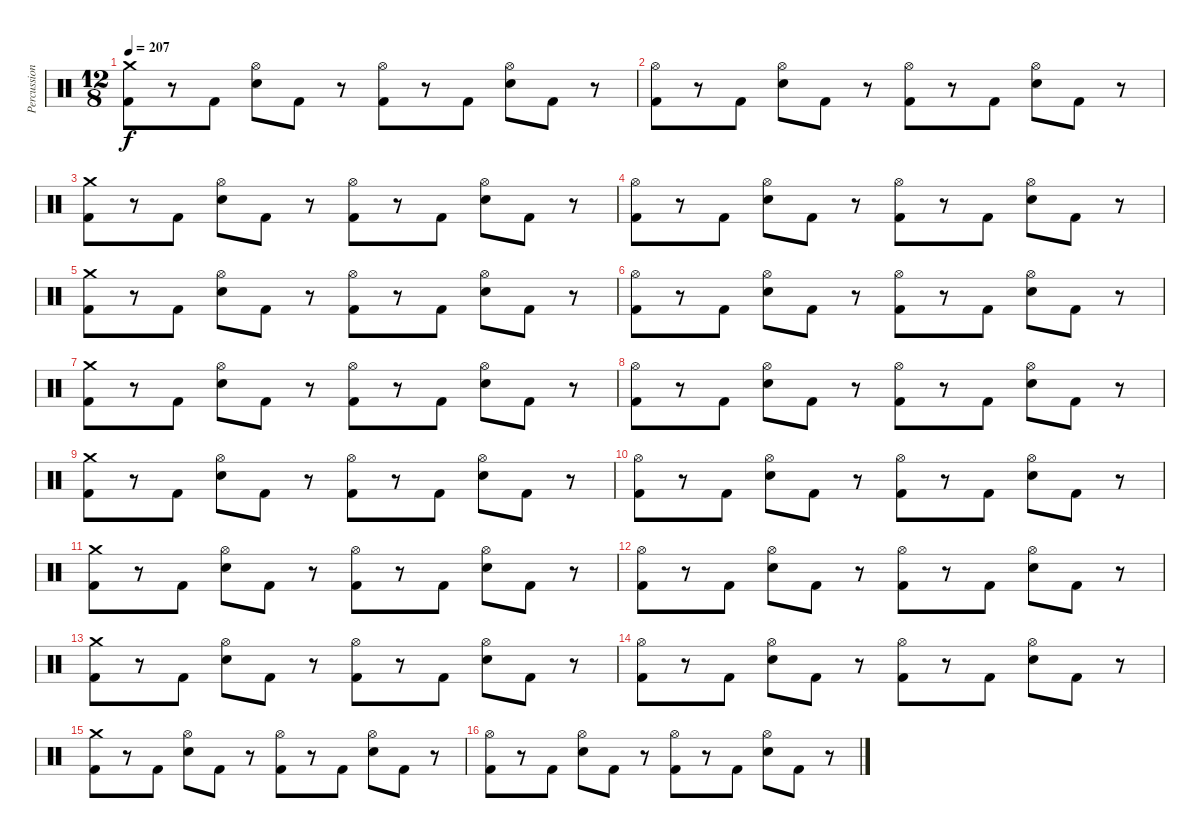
\track ("Percussion" "Percussion") {instrument percussion}
\staff {score}
\articulation defaults
\ts (12 8)
\tempo 207
\clef neutral
\ks c
("Crash medium (hit)" "Kick (hit) 2").8{dy f} r.8 "Kick (hit) 2".8 ("Hi-Hat (open)" "Electric Snare (hit)").8 "Kick (hit) 2".8 r.8 ("Hi-Hat (open)" "Kick (hit) 2").8 r.8 "Kick (hit) 2".8 ("Hi-Hat (open)" "Electric Snare (hit)").8 "Kick (hit) 2".8 r.8 |
("Hi-Hat (open)" "Kick (hit) 2").8 r.8 "Kick (hit) 2".8 ("Hi-Hat (open)" "Electric Snare (hit)").8 "Kick (hit) 2".8 r.8 ("Hi-Hat (open)" "Kick (hit) 2").8 r.8 "Kick (hit) 2".8 ("Hi-Hat (open)" "Electric Snare (hit)").8 "Kick (hit) 2".8 r.8 |
("Crash medium (hit)" "Kick (hit) 2").8 r.8 "Kick (hit) 2".8 ("Hi-Hat (open)" "Electric Snare (hit)").8 "Kick (hit) 2".8 r.8 ("Hi-Hat (open)" "Kick (hit) 2").8 r.8 "Kick (hit) 2".8 ("Hi-Hat (open)" "Electric Snare (hit)").8 "Kick (hit) 2".8 r.8 |
("Hi-Hat (open)" "Kick (hit) 2").8 r.8 "Kick (hit) 2".8 ("Hi-Hat (open)" "Electric Snare (hit)").8 "Kick (hit) 2".8 r.8 ("Hi-Hat (open)" "Kick (hit) 2").8 r.8 "Kick (hit) 2".8 ("Hi-Hat (open)" "Electric Snare (hit)").8 "Kick (hit) 2".8 r.8 |
("Crash medium (hit)" "Kick (hit) 2").8 r.8 "Kick (hit) 2".8 ("Hi-Hat (open)" "Electric Snare (hit)").8 "Kick (hit) 2".8 r.8 ("Hi-Hat (open)" "Kick (hit) 2").8 r.8 "Kick (hit) 2".8 ("Hi-Hat (open)" "Electric Snare (hit)").8 "Kick (hit) 2".8 r.8 |
("Hi-Hat (open)" "Kick (hit) 2").8 r.8 "Kick (hit) 2".8 ("Hi-Hat (open)" "Electric Snare (hit)").8 "Kick (hit) 2".8 r.8 ("Hi-Hat (open)" "Kick (hit) 2").8 r.8 "Kick (hit) 2".8 ("Hi-Hat (open)" "Electric Snare (hit)").8 "Kick (hit) 2".8 r.8 |
("Crash medium (hit)" "Kick (hit) 2").8 r.8 "Kick (hit) 2".8 ("Hi-Hat (open)" "Electric Snare (hit)").8 "Kick (hit) 2".8 r.8 ("Hi-Hat (open)" "Kick (hit) 2").8 r.8 "Kick (hit) 2".8 ("Hi-Hat (open)" "Electric Snare (hit)").8 "Kick (hit) 2".8 r.8 |
("Hi-Hat (open)" "Kick (hit) 2").8 r.8 "Kick (hit) 2".8 ("Hi-Hat (open)" "Electric Snare (hit)").8 "Kick (hit) 2".8 r.8 ("Hi-Hat (open)" "Kick (hit) 2").8 r.8 "Kick (hit) 2".8 ("Hi-Hat (open)" "Electric Snare (hit)").8 "Kick (hit) 2".8 r.8 |
("Crash medium (hit)" "Kick (hit) 2").8 r.8 "Kick (hit) 2".8 ("Hi-Hat (open)" "Electric Snare (hit)").8 "Kick (hit) 2".8 r.8 ("Hi-Hat (open)" "Kick (hit) 2").8 r.8 "Kick (hit) 2".8 ("Hi-Hat (open)" "Electric Snare (hit)").8 "Kick (hit) 2".8 r.8 |
("Hi-Hat (open)" "Kick (hit) 2").8 r.8 "Kick (hit) 2".8 ("Hi-Hat (open)" "Electric Snare (hit)").8 "Kick (hit) 2".8 r.8 ("Hi-Hat (open)" "Kick (hit) 2").8 r.8 "Kick (hit) 2".8 ("Hi-Hat (open)" "Electric Snare (hit)").8 "Kick (hit) 2".8 r.8 |
("Crash medium (hit)" "Kick (hit) 2").8 r.8 "Kick (hit) 2".8 ("Hi-Hat (open)" "Electric Snare (hit)").8 "Kick (hit) 2".8 r.8 ("Hi-Hat (open)" "Kick (hit) 2").8 r.8 "Kick (hit) 2".8 ("Hi-Hat (open)" "Electric Snare (hit)").8 "Kick (hit) 2".8 r.8 |
("Hi-Hat (open)" "Kick (hit) 2").8 r.8 "Kick (hit) 2".8 ("Hi-Hat (open)" "Electric Snare (hit)").8 "Kick (hit) 2".8 r.8 ("Hi-Hat (open)" "Kick (hit) 2").8 r.8 "Kick (hit) 2".8 ("Hi-Hat (open)" "Electric Snare (hit)").8 "Kick (hit) 2".8 r.8 |
("Crash medium (hit)" "Kick (hit) 2").8 r.8 "Kick (hit) 2".8 ("Hi-Hat (open)" "Electric Snare (hit)").8 "Kick (hit) 2".8 r.8 ("Hi-Hat (open)" "Kick (hit) 2").8 r.8 "Kick (hit) 2".8 ("Hi-Hat (open)" "Electric Snare (hit)").8 "Kick (hit) 2".8 r.8 |
("Hi-Hat (open)" "Kick (hit) 2").8 r.8 "Kick (hit) 2".8 ("Hi-Hat (open)" "Electric Snare (hit)").8 "Kick (hit) 2".8 r.8 ("Hi-Hat (open)" "Kick (hit) 2").8 r.8 "Kick (hit) 2".8 ("Hi-Hat (open)" "Electric Snare (hit)").8 "Kick (hit) 2".8 r.8 |
("Crash medium (hit)" "Kick (hit) 2").8 r.8 "Kick (hit) 2".8 ("Hi-Hat (open)" "Electric Snare (hit)").8 "Kick (hit) 2".8 r.8 ("Hi-Hat (open)" "Kick (hit) 2").8 r.8 "Kick (hit) 2".8 ("Hi-Hat (open)" "Electric Snare (hit)").8 "Kick (hit) 2".8 r.8 |
("Hi-Hat (open)" "Kick (hit) 2").8 r.8 "Kick (hit) 2".8 ("Hi-Hat (open)" "Electric Snare (hit)").8 "Kick (hit) 2".8 r.8 ("Hi-Hat (open)" "Kick (hit) 2").8 r.8 "Kick (hit) 2".8 ("Hi-Hat (open)" "Electric Snare (hit)").8 "Kick (hit) 2".8 r.8
